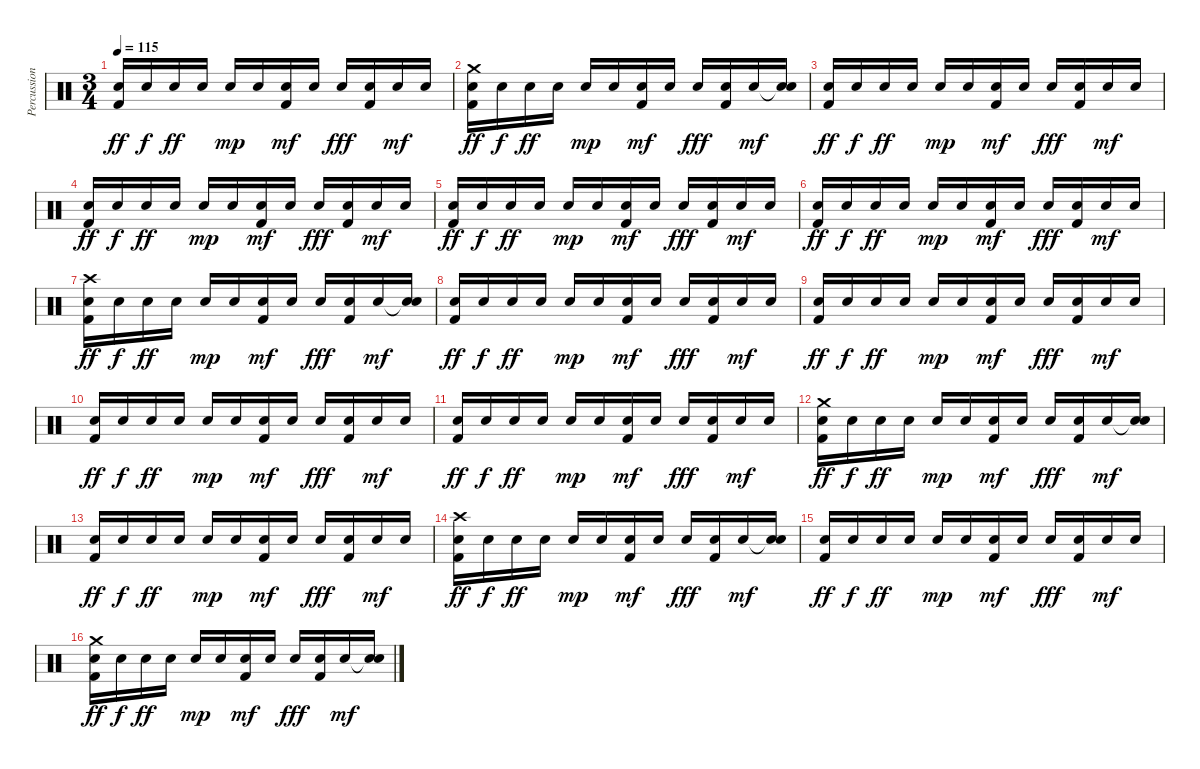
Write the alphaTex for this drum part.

\track ("Percussion 1" "Percussion") {instrument percussion}
\staff {score}
\articulation defaults
\ts (3 4)
\tempo 115
\clef neutral
\ks c
("Snare (hit) 2" "Kick (hit) 2").16{dy ff} "Snare (hit) 2".16{dy f} "Snare (hit) 2".16{dy ff} "Snare (hit) 2".16 "Snare (hit) 2".16{dy mp} "Snare (hit) 2".16 ("Snare (hit) 2" "Kick (hit) 2").16{dy mf} "Snare (hit) 2".16 "Snare (hit) 2".16{dy fff} ("Snare (hit) 2" "Kick (hit) 2").16 "Snare (hit) 2".16{dy mf} "Snare (hit) 2".16 |
("Crash medium (hit)" "Snare (hit) 2" "Kick (hit) 2").16{dy ff} "Snare (hit) 2".16{dy f} "Snare (hit) 2".16{dy ff} "Snare (hit) 2".16 "Snare (hit) 2".16{dy mp} "Snare (hit) 2".16 ("Snare (hit) 2" "Kick (hit) 2").16{dy mf} "Snare (hit) 2".16 "Snare (hit) 2".16{dy fff} ("Snare (hit) 2" "Kick (hit) 2").16 "Snare (hit) 2".16{dy mf} ("Snare (hit)"{t} "Snare (hit) 2").16 |
("Snare (hit) 2" "Kick (hit) 2").16{dy ff} "Snare (hit) 2".16{dy f} "Snare (hit) 2".16{dy ff} "Snare (hit) 2".16 "Snare (hit) 2".16{dy mp} "Snare (hit) 2".16 ("Snare (hit) 2" "Kick (hit) 2").16{dy mf} "Snare (hit) 2".16 "Snare (hit) 2".16{dy fff} ("Snare (hit) 2" "Kick (hit) 2").16 "Snare (hit) 2".16{dy mf} "Snare (hit) 2".16 |
("Snare (hit) 2" "Kick (hit) 2").16{dy ff} "Snare (hit) 2".16{dy f} "Snare (hit) 2".16{dy ff} "Snare (hit) 2".16 "Snare (hit) 2".16{dy mp} "Snare (hit) 2".16 ("Snare (hit) 2" "Kick (hit) 2").16{dy mf} "Snare (hit) 2".16 "Snare (hit) 2".16{dy fff} ("Snare (hit) 2" "Kick (hit) 2").16 "Snare (hit) 2".16{dy mf} "Snare (hit) 2".16 |
("Snare (hit) 2" "Kick (hit) 2").16{dy ff} "Snare (hit) 2".16{dy f} "Snare (hit) 2".16{dy ff} "Snare (hit) 2".16 "Snare (hit) 2".16{dy mp} "Snare (hit) 2".16 ("Snare (hit) 2" "Kick (hit) 2").16{dy mf} "Snare (hit) 2".16 "Snare (hit) 2".16{dy fff} ("Snare (hit) 2" "Kick (hit) 2").16 "Snare (hit) 2".16{dy mf} "Snare (hit) 2".16 |
("Snare (hit) 2" "Kick (hit) 2").16{dy ff} "Snare (hit) 2".16{dy f} "Snare (hit) 2".16{dy ff} "Snare (hit) 2".16 "Snare (hit) 2".16{dy mp} "Snare (hit) 2".16 ("Snare (hit) 2" "Kick (hit) 2").16{dy mf} "Snare (hit) 2".16 "Snare (hit) 2".16{dy fff} ("Snare (hit) 2" "Kick (hit) 2").16 "Snare (hit) 2".16{dy mf} "Snare (hit) 2".16 |
("Crash high (hit)" "Snare (hit) 2" "Kick (hit) 2").16{dy ff} "Snare (hit) 2".16{dy f} "Snare (hit) 2".16{dy ff} "Snare (hit) 2".16 "Snare (hit) 2".16{dy mp} "Snare (hit) 2".16 ("Snare (hit) 2" "Kick (hit) 2").16{dy mf} "Snare (hit) 2".16 "Snare (hit) 2".16{dy fff} ("Snare (hit) 2" "Kick (hit) 2").16 "Snare (hit) 2".16{dy mf} ("Snare (hit)"{t} "Snare (hit) 2").16 |
("Snare (hit) 2" "Kick (hit) 2").16{dy ff} "Snare (hit) 2".16{dy f} "Snare (hit) 2".16{dy ff} "Snare (hit) 2".16 "Snare (hit) 2".16{dy mp} "Snare (hit) 2".16 ("Snare (hit) 2" "Kick (hit) 2").16{dy mf} "Snare (hit) 2".16 "Snare (hit) 2".16{dy fff} ("Snare (hit) 2" "Kick (hit) 2").16 "Snare (hit) 2".16{dy mf} "Snare (hit) 2".16 |
("Snare (hit) 2" "Kick (hit) 2").16{dy ff} "Snare (hit) 2".16{dy f} "Snare (hit) 2".16{dy ff} "Snare (hit) 2".16 "Snare (hit) 2".16{dy mp} "Snare (hit) 2".16 ("Snare (hit) 2" "Kick (hit) 2").16{dy mf} "Snare (hit) 2".16 "Snare (hit) 2".16{dy fff} ("Snare (hit) 2" "Kick (hit) 2").16 "Snare (hit) 2".16{dy mf} "Snare (hit) 2".16 |
("Snare (hit) 2" "Kick (hit) 2").16{dy ff} "Snare (hit) 2".16{dy f} "Snare (hit) 2".16{dy ff} "Snare (hit) 2".16 "Snare (hit) 2".16{dy mp} "Snare (hit) 2".16 ("Snare (hit) 2" "Kick (hit) 2").16{dy mf} "Snare (hit) 2".16 "Snare (hit) 2".16{dy fff} ("Snare (hit) 2" "Kick (hit) 2").16 "Snare (hit) 2".16{dy mf} "Snare (hit) 2".16 |
("Snare (hit) 2" "Kick (hit) 2").16{dy ff} "Snare (hit) 2".16{dy f} "Snare (hit) 2".16{dy ff} "Snare (hit) 2".16 "Snare (hit) 2".16{dy mp} "Snare (hit) 2".16 ("Snare (hit) 2" "Kick (hit) 2").16{dy mf} "Snare (hit) 2".16 "Snare (hit) 2".16{dy fff} ("Snare (hit) 2" "Kick (hit) 2").16 "Snare (hit) 2".16{dy mf} "Snare (hit) 2".16 |
("Crash medium (hit)" "Snare (hit) 2" "Kick (hit) 2").16{dy ff volume 15} "Snare (hit) 2".16{dy f} "Snare (hit) 2".16{dy ff} "Snare (hit) 2".16 "Snare (hit) 2".16{dy mp} "Snare (hit) 2".16 ("Snare (hit) 2" "Kick (hit) 2").16{dy mf} "Snare (hit) 2".16 "Snare (hit) 2".16{dy fff} ("Snare (hit) 2" "Kick (hit) 2").16 "Snare (hit) 2".16{dy mf} ("Snare (hit)"{t} "Snare (hit) 2").16 |
("Snare (hit) 2" "Kick (hit) 2").16{dy ff} "Snare (hit) 2".16{dy f} "Snare (hit) 2".16{dy ff} "Snare (hit) 2".16 "Snare (hit) 2".16{dy mp} "Snare (hit) 2".16 ("Snare (hit) 2" "Kick (hit) 2").16{dy mf} "Snare (hit) 2".16 "Snare (hit) 2".16{dy fff} ("Snare (hit) 2" "Kick (hit) 2").16 "Snare (hit) 2".16{dy mf} "Snare (hit) 2".16 |
("Crash high (hit)" "Snare (hit) 2" "Kick (hit) 2").16{dy ff} "Snare (hit) 2".16{dy f} "Snare (hit) 2".16{dy ff} "Snare (hit) 2".16 "Snare (hit) 2".16{dy mp} "Snare (hit) 2".16 ("Snare (hit) 2" "Kick (hit) 2").16{dy mf} "Snare (hit) 2".16 "Snare (hit) 2".16{dy fff} ("Snare (hit) 2" "Kick (hit) 2").16 "Snare (hit) 2".16{dy mf} ("Snare (hit)"{t} "Snare (hit) 2").16 |
("Snare (hit) 2" "Kick (hit) 2").16{dy ff} "Snare (hit) 2".16{dy f} "Snare (hit) 2".16{dy ff} "Snare (hit) 2".16 "Snare (hit) 2".16{dy mp} "Snare (hit) 2".16 ("Snare (hit) 2" "Kick (hit) 2").16{dy mf} "Snare (hit) 2".16 "Snare (hit) 2".16{dy fff} ("Snare (hit) 2" "Kick (hit) 2").16 "Snare (hit) 2".16{dy mf} "Snare (hit) 2".16 |
("Crash medium (hit)" "Snare (hit) 2" "Kick (hit) 2").16{dy ff} "Snare (hit) 2".16{dy f} "Snare (hit) 2".16{dy ff} "Snare (hit) 2".16 "Snare (hit) 2".16{dy mp} "Snare (hit) 2".16 ("Snare (hit) 2" "Kick (hit) 2").16{dy mf} "Snare (hit) 2".16 "Snare (hit) 2".16{dy fff} ("Snare (hit) 2" "Kick (hit) 2").16 "Snare (hit) 2".16{dy mf} ("Snare (hit)"{t} "Snare (hit) 2").16
